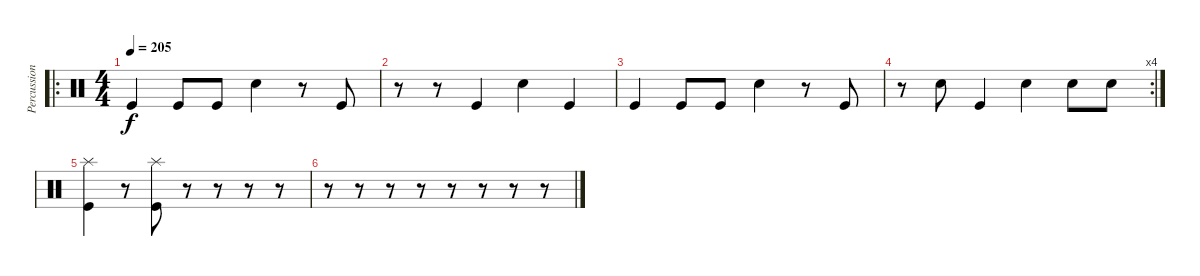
\track ("Percussion" "Percussion") {instrument percussion}
\staff {score}
\articulation defaults
\ro
\ts (4 4)
\tempo 205
\clef neutral
\ks c "Kick (hit)".4{dy f} "Kick (hit)".8 "Kick (hit)".8 "Snare (hit) 2".4
r.8 "Kick (hit)".8 |
r.8 r.8 "Kick (hit)".4 "Snare (hit) 2".4 "Kick (hit)".4 |
"Kick (hit)".4 "Kick (hit)".8 "Kick (hit)".8 "Snare (hit) 2".4 r.8 "Kick (hit)".8 |
\rc 4
r.8 "Snare (hit) 2".8 "Kick (hit)".4 "Snare (hit) 2".4 "Snare (hit) 2".8 "Snare (hit) 2".8 |
("Kick (hit)" "Splash (hit)").4 r.8 ("Kick (hit)" "Splash (hit)").8 r.8 r.8 r.8 r.8 |
r.8 r.8 r.8 r.8 r.8 r.8 r.8 r.8
